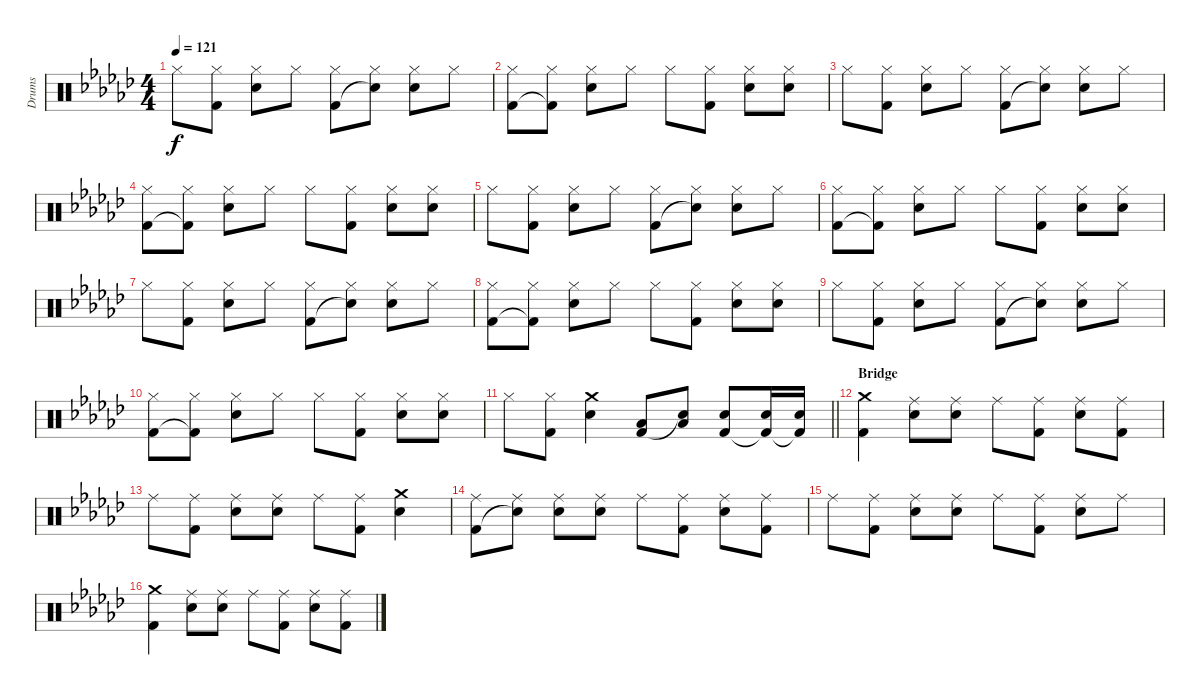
\track ("Drums" "Drums") {instrument percussion}
\staff {score}
\articulation defaults
\ts (4 4)
\tempo 121
\clef neutral
\ks ebminor "Hi-Hat (closed)".8{dy f}
("Hi-Hat (closed)" "Kick (hit) 2").8 ("Hi-Hat (closed)" "Electric Snare (hit)").8 "Hi-Hat (closed)".8 ("Hi-Hat (closed)" "Kick (hit) 2").8 ("Hi-Hat (closed)" "Snare (hit)"{t}).8 ("Hi-Hat (closed)" "Electric Snare (hit)").8 "Hi-Hat (closed)".8 |
("Hi-Hat (closed)" "Kick (hit) 2").8 ("Hi-Hat (closed)" "Kick (hit) 2"{t}).8 ("Hi-Hat (closed)" "Electric Snare (hit)").8 "Hi-Hat (closed)".8 "Hi-Hat (closed)".8 ("Hi-Hat (closed)" "Kick (hit) 2").8 ("Hi-Hat (closed)" "Electric Snare (hit)").8 ("Hi-Hat (closed)" "Electric Snare (hit)").8 |
"Hi-Hat (closed)".8 ("Hi-Hat (closed)" "Kick (hit) 2").8 ("Hi-Hat (closed)" "Electric Snare (hit)").8 "Hi-Hat (closed)".8 ("Hi-Hat (closed)" "Kick (hit) 2").8 ("Hi-Hat (closed)" "Snare (hit)"{t}).8 ("Hi-Hat (closed)" "Electric Snare (hit)").8 "Hi-Hat (closed)".8 |
("Hi-Hat (closed)" "Kick (hit) 2").8 ("Hi-Hat (closed)" "Kick (hit) 2"{t}).8 ("Hi-Hat (closed)" "Electric Snare (hit)").8 "Hi-Hat (closed)".8 "Hi-Hat (closed)".8 ("Hi-Hat (closed)" "Kick (hit) 2").8 ("Hi-Hat (closed)" "Electric Snare (hit)").8 ("Hi-Hat (closed)" "Electric Snare (hit)").8 |
"Hi-Hat (closed)".8 ("Hi-Hat (closed)" "Kick (hit) 2").8 ("Hi-Hat (closed)" "Electric Snare (hit)").8 "Hi-Hat (closed)".8 ("Hi-Hat (closed)" "Kick (hit) 2").8 ("Hi-Hat (closed)" "Snare (hit)"{t}).8 ("Hi-Hat (closed)" "Electric Snare (hit)").8 "Hi-Hat (closed)".8 |
("Hi-Hat (closed)" "Kick (hit) 2").8 ("Hi-Hat (closed)" "Kick (hit) 2"{t}).8 ("Hi-Hat (closed)" "Electric Snare (hit)").8 "Hi-Hat (closed)".8 "Hi-Hat (closed)".8 ("Hi-Hat (closed)" "Kick (hit) 2").8 ("Hi-Hat (closed)" "Electric Snare (hit)").8 ("Hi-Hat (closed)" "Electric Snare (hit)").8 |
"Hi-Hat (closed)".8 ("Hi-Hat (closed)" "Kick (hit) 2").8 ("Hi-Hat (closed)" "Electric Snare (hit)").8 "Hi-Hat (closed)".8 ("Hi-Hat (closed)" "Kick (hit) 2").8 ("Hi-Hat (closed)" "Snare (hit)"{t}).8 ("Hi-Hat (closed)" "Electric Snare (hit)").8 "Hi-Hat (closed)".8 |
("Hi-Hat (closed)" "Kick (hit) 2").8 ("Hi-Hat (closed)" "Kick (hit) 2"{t}).8 ("Hi-Hat (closed)" "Electric Snare (hit)").8 "Hi-Hat (closed)".8 "Hi-Hat (closed)".8 ("Hi-Hat (closed)" "Kick (hit) 2").8 ("Hi-Hat (closed)" "Electric Snare (hit)").8 ("Hi-Hat (closed)" "Electric Snare (hit)").8 |
"Hi-Hat (closed)".8 ("Hi-Hat (closed)" "Kick (hit) 2").8 ("Hi-Hat (closed)" "Electric Snare (hit)").8 "Hi-Hat (closed)".8 ("Hi-Hat (closed)" "Kick (hit) 2").8 ("Hi-Hat (closed)" "Snare (hit)"{t}).8 ("Hi-Hat (closed)" "Electric Snare (hit)").8 "Hi-Hat (closed)".8 |
("Hi-Hat (closed)" "Kick (hit) 2").8 ("Hi-Hat (closed)" "Kick (hit) 2"{t}).8 ("Hi-Hat (closed)" "Electric Snare (hit)").8 "Hi-Hat (closed)".8 "Hi-Hat (closed)".8 ("Hi-Hat (closed)" "Kick (hit) 2").8 ("Hi-Hat (closed)" "Electric Snare (hit)").8 ("Hi-Hat (closed)" "Electric Snare (hit)").8 |
\barLineRight lightlight "Hi-Hat (closed)".8
("Hi-Hat (closed)" "Kick (hit) 2").8 ("Crash medium (hit)" "Electric Snare (hit)").4 ("Low Floor Tom (hit)" "Kick (hit) 2").8 ("Low Floor Tom (hit)" "Snare (hit)"{t}).8 ("Electric Snare (hit)" "Kick (hit) 2").8 ("Electric Snare (hit)" "Kick (hit) 2"{t}).16 ("Electric Snare (hit)" "Kick (hit) 2"{t}).16 |
\section ("" "Bridge")
("Crash medium (hit)" "Kick (hit) 2").4 ("Ride (middle)" "Electric Snare (hit)").8 ("Ride (middle)" "Electric Snare (hit)").8 "Ride (middle)".8 ("Ride (middle)" "Kick (hit) 2").8 ("Ride (middle)" "Electric Snare (hit)").8 ("Ride (middle)" "Kick (hit) 2").8 |
"Ride (middle)".8 ("Ride (middle)" "Kick (hit) 2").8 ("Ride (middle)" "Electric Snare (hit)").8 ("Ride (middle)" "Electric Snare (hit)").8 "Ride (middle)".8 ("Ride (middle)" "Kick (hit) 2").8 ("Crash medium (hit)" "Electric Snare (hit)").4 |
("Ride (middle)" "Kick (hit) 2").8 ("Ride (middle)" "Snare (hit)"{t}).8 ("Ride (middle)" "Electric Snare (hit)").8 ("Ride (middle)" "Electric Snare (hit)").8 "Ride (middle)".8 ("Ride (middle)" "Kick (hit) 2").8 ("Ride (middle)" "Electric Snare (hit)").8 ("Ride (middle)" "Kick (hit) 2").8 |
"Ride (middle)".8 ("Ride (middle)" "Kick (hit) 2").8 ("Ride (middle)" "Electric Snare (hit)").8 ("Ride (middle)" "Electric Snare (hit)").8 "Ride (middle)".8 ("Ride (middle)" "Kick (hit) 2").8 ("Ride (middle)" "Electric Snare (hit)").8 "Ride (middle)".8 |
("Crash medium (hit)" "Kick (hit) 2").4 ("Ride (middle)" "Electric Snare (hit)").8 ("Ride (middle)" "Electric Snare (hit)").8 "Ride (middle)".8 ("Ride (middle)" "Kick (hit) 2").8 ("Ride (middle)" "Electric Snare (hit)").8 ("Ride (middle)" "Kick (hit) 2").8
